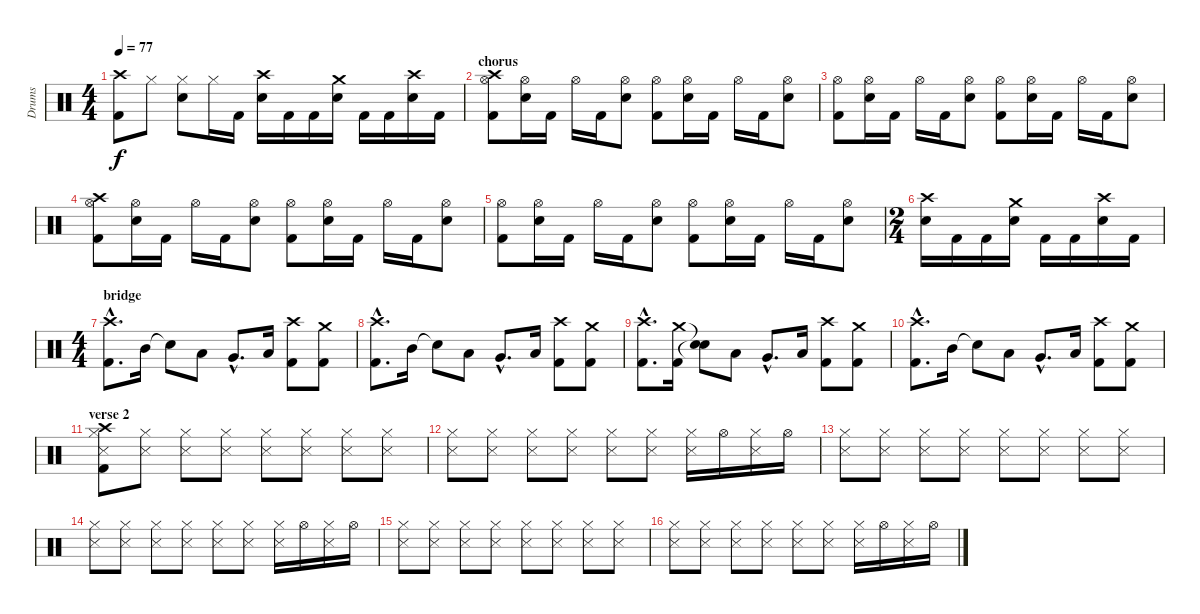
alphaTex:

\track ("Drums" "Drums") {instrument percussion}
\staff {score}
\articulation defaults
\ts (4 4)
\tempo 77
\clef neutral
\ks c
("Crash high (hit)" "Kick (hit) 2").8{dy f} "Hi-Hat (closed)".8 ("Hi-Hat (closed)" "Snare (hit) 2").8 "Hi-Hat (closed)".16 "Kick (hit) 2".16 ("Crash high (hit)" "Snare (hit) 2").16 "Kick (hit) 2".16 "Kick (hit) 2".16 ("Crash medium (hit)" "Snare (hit) 2").16 "Kick (hit) 2".16 "Kick (hit) 2".16 ("Crash high (hit)" "Snare (hit) 2").16 "Kick (hit) 2".16 |
\section ("" "chorus")
("Crash high (hit)" "Hi-Hat (open)" "Kick (hit) 2").8 ("Hi-Hat (open)" "Snare (hit) 2").16 "Kick (hit) 2".16 "Hi-Hat (open)".16 "Kick (hit) 2".16 ("Hi-Hat (open)" "Snare (hit) 2").8 ("Hi-Hat (open)" "Kick (hit) 2").8 ("Hi-Hat (open)" "Snare (hit) 2").16 "Kick (hit) 2".16 "Hi-Hat (open)".16 "Kick (hit) 2".16 ("Hi-Hat (open)" "Snare (hit) 2").8 |
("Hi-Hat (open)" "Kick (hit) 2").8 ("Hi-Hat (open)" "Snare (hit) 2").16 "Kick (hit) 2".16 "Hi-Hat (open)".16 "Kick (hit) 2".16 ("Hi-Hat (open)" "Snare (hit) 2").8 ("Hi-Hat (open)" "Kick (hit) 2").8 ("Hi-Hat (open)" "Snare (hit) 2").16 "Kick (hit) 2".16 "Hi-Hat (open)".16 "Kick (hit) 2".16 ("Hi-Hat (open)" "Snare (hit) 2").8 |
("Crash high (hit)" "Hi-Hat (open)" "Kick (hit) 2").8 ("Hi-Hat (open)" "Snare (hit) 2").16 "Kick (hit) 2".16 "Hi-Hat (open)".16 "Kick (hit) 2".16 ("Hi-Hat (open)" "Snare (hit) 2").8 ("Hi-Hat (open)" "Kick (hit) 2").8 ("Hi-Hat (open)" "Snare (hit) 2").16 "Kick (hit) 2".16 "Hi-Hat (open)".16 "Kick (hit) 2".16 ("Hi-Hat (open)" "Snare (hit) 2").8 |
("Hi-Hat (open)" "Kick (hit) 2").8 ("Hi-Hat (open)" "Snare (hit) 2").16 "Kick (hit) 2".16 "Hi-Hat (open)".16 "Kick (hit) 2".16 ("Hi-Hat (open)" "Snare (hit) 2").8 ("Hi-Hat (open)" "Kick (hit) 2").8 ("Hi-Hat (open)" "Snare (hit) 2").16 "Kick (hit) 2".16 "Hi-Hat (open)".16 "Kick (hit) 2".16 ("Hi-Hat (open)" "Snare (hit) 2").8 |
\ts (2 4)
("Crash high (hit)" "Snare (hit) 2").16 "Kick (hit) 2".16 "Kick (hit) 2".16 ("Crash medium (hit)" "Snare (hit) 2").16 "Kick (hit) 2".16 "Kick (hit) 2".16 ("Crash high (hit)" "Snare (hit) 2").16 "Kick (hit) 2".16 |
\ts (4 4)
\section ("" "bridge")
("Crash high (hit)"{hac} "Kick (hit) 2"{hac}).8{d} "Mid Tom (hit)".16 "Snare (hit)"{t}.8 "Low Tom (hit)".8 "Very Low Tom (hit)"{hac}.8{d} "Low Floor Tom (hit)".16 ("Crash high (hit)" "Kick (hit) 2").8 ("Crash medium (hit)" "Kick (hit) 2").8 |
("Crash high (hit)"{hac} "Kick (hit) 2"{hac}).8{d} "Mid Tom (hit)".16 "Snare (hit)"{t}.8 "Low Tom (hit)".8 "Very Low Tom (hit)"{hac}.8{d} "Low Floor Tom (hit)".16 ("Crash high (hit)" "Kick (hit) 2").8 ("Crash medium (hit)" "Kick (hit) 2").8 |
("Crash high (hit)"{hac} "Kick (hit) 2"{hac}).8{d} ("Crash medium (hit)" "Kick (hit) 2").16 ("Snare (hit)"{t} "Snare (hit)"{t}).8 "Low Tom (hit)".8 "Very Low Tom (hit)"{hac}.8{d} "Low Floor Tom (hit)".16 ("Crash high (hit)" "Kick (hit) 2").8 ("Crash medium (hit)" "Kick (hit) 2").8 |
("Crash high (hit)"{hac} "Kick (hit) 2"{hac}).8{d} "Mid Tom (hit)".16 "Snare (hit)"{t}.8 "Low Tom (hit)".8 "Very Low Tom (hit)"{hac}.8{d} "Low Floor Tom (hit)".16 ("Crash high (hit)" "Kick (hit) 2").8 ("Crash medium (hit)" "Kick (hit) 2").8 |
\section ("" "verse 2")
("Crash high (hit)" "Snare (side stick) 3" "Hi-Hat (closed)" "Kick (hit) 2").8 ("Snare (side stick) 3" "Hi-Hat (closed)").8 ("Snare (side stick) 3" "Hi-Hat (closed)").8 ("Snare (side stick) 3" "Hi-Hat (closed)").8 ("Snare (side stick) 3" "Hi-Hat (closed)").8 ("Snare (side stick) 3" "Hi-Hat (closed)").8 ("Snare (side stick) 3" "Hi-Hat (closed)").8 ("Snare (side stick) 3" "Hi-Hat (closed)").8 |
("Snare (side stick) 3" "Hi-Hat (closed)").8 ("Snare (side stick) 3" "Hi-Hat (closed)").8 ("Snare (side stick) 3" "Hi-Hat (closed)").8 ("Snare (side stick) 3" "Hi-Hat (closed)").8 ("Snare (side stick) 3" "Hi-Hat (closed)").8 ("Snare (side stick) 3" "Hi-Hat (closed)").8 ("Snare (side stick) 3" "Hi-Hat (closed)").16 "Hi-Hat (open)".16 ("Snare (side stick) 3" "Hi-Hat (closed)").16 "Hi-Hat (open)".16 |
("Snare (side stick) 3" "Hi-Hat (closed)").8 ("Snare (side stick) 3" "Hi-Hat (closed)").8 ("Snare (side stick) 3" "Hi-Hat (closed)").8 ("Snare (side stick) 3" "Hi-Hat (closed)").8 ("Snare (side stick) 3" "Hi-Hat (closed)").8 ("Snare (side stick) 3" "Hi-Hat (closed)").8 ("Snare (side stick) 3" "Hi-Hat (closed)").8 ("Snare (side stick) 3" "Hi-Hat (closed)").8 |
("Snare (side stick) 3" "Hi-Hat (closed)").8 ("Snare (side stick) 3" "Hi-Hat (closed)").8 ("Snare (side stick) 3" "Hi-Hat (closed)").8 ("Snare (side stick) 3" "Hi-Hat (closed)").8 ("Snare (side stick) 3" "Hi-Hat (closed)").8 ("Snare (side stick) 3" "Hi-Hat (closed)").8 ("Snare (side stick) 3" "Hi-Hat (closed)").16 "Hi-Hat (open)".16 ("Snare (side stick) 3" "Hi-Hat (closed)").16 "Hi-Hat (open)".16 |
("Snare (side stick) 3" "Hi-Hat (closed)").8 ("Snare (side stick) 3" "Hi-Hat (closed)").8 ("Snare (side stick) 3" "Hi-Hat (closed)").8 ("Snare (side stick) 3" "Hi-Hat (closed)").8 ("Snare (side stick) 3" "Hi-Hat (closed)").8 ("Snare (side stick) 3" "Hi-Hat (closed)").8 ("Snare (side stick) 3" "Hi-Hat (closed)").8 ("Snare (side stick) 3" "Hi-Hat (closed)").8 |
("Snare (side stick) 3" "Hi-Hat (closed)").8 ("Snare (side stick) 3" "Hi-Hat (closed)").8 ("Snare (side stick) 3" "Hi-Hat (closed)").8 ("Snare (side stick) 3" "Hi-Hat (closed)").8 ("Snare (side stick) 3" "Hi-Hat (closed)").8 ("Snare (side stick) 3" "Hi-Hat (closed)").8 ("Snare (side stick) 3" "Hi-Hat (closed)").16 "Hi-Hat (open)".16 ("Snare (side stick) 3" "Hi-Hat (closed)").16 "Hi-Hat (open)".16
